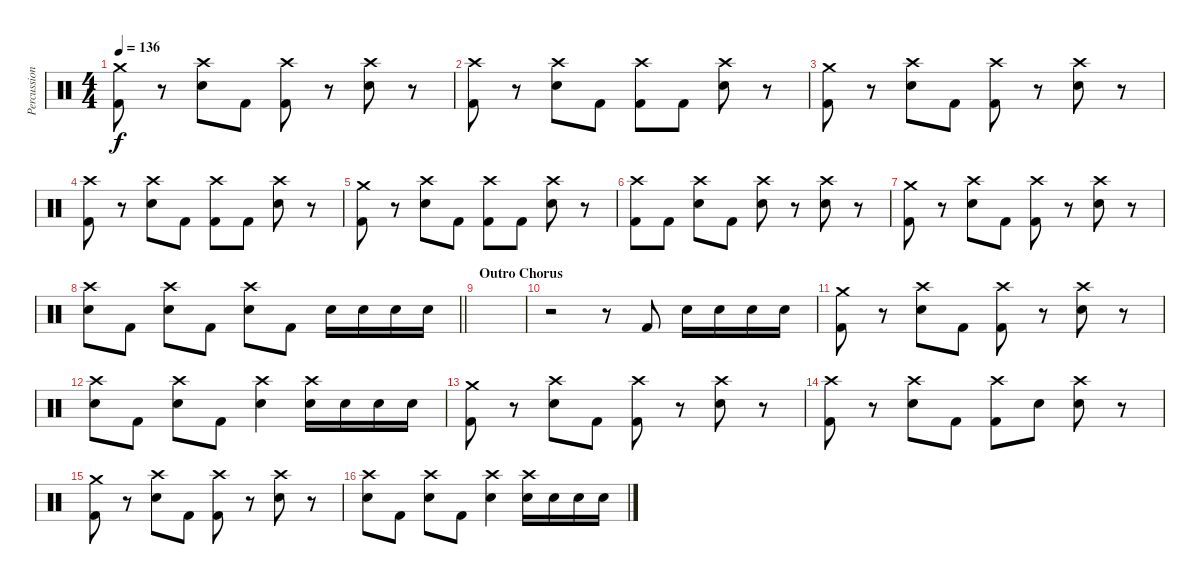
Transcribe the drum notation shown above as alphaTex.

\track ("Percussion" "Percussion") {instrument percussion}
\staff {score}
\articulation defaults
\ts (4 4)
\tempo 136
\clef neutral
\ks c
("Crash medium (hit)" "Kick (hit) 2").8{dy f} r.8 ("Crash high (hit)" "Snare (hit) 2").8 "Kick (hit) 2".8 ("Crash high (hit)" "Kick (hit) 2").8 r.8 ("Crash high (hit)" "Snare (hit) 2").8 r.8 |
("Crash high (hit)" "Kick (hit) 2").8 r.8 ("Crash high (hit)" "Snare (hit) 2").8 "Kick (hit) 2".8 ("Crash high (hit)" "Kick (hit) 2").8 "Kick (hit) 2".8 ("Crash high (hit)" "Snare (hit) 2").8 r.8 |
("Crash medium (hit)" "Kick (hit) 2").8 r.8 ("Crash high (hit)" "Snare (hit) 2").8 "Kick (hit) 2".8 ("Crash high (hit)" "Kick (hit) 2").8 r.8 ("Crash high (hit)" "Snare (hit) 2").8 r.8 |
("Crash high (hit)" "Kick (hit) 2").8 r.8 ("Crash high (hit)" "Snare (hit) 2").8 "Kick (hit) 2".8 ("Crash high (hit)" "Kick (hit) 2").8 "Kick (hit) 2".8 ("Crash high (hit)" "Snare (hit) 2").8 r.8 |
("Crash medium (hit)" "Kick (hit) 2").8 r.8 ("Crash high (hit)" "Snare (hit) 2").8 "Kick (hit) 2".8 ("Crash high (hit)" "Kick (hit) 2").8 "Kick (hit) 2".8 ("Crash high (hit)" "Snare (hit) 2").8 r.8 |
("Crash high (hit)" "Kick (hit) 2").8 "Kick (hit) 2".8 ("Crash high (hit)" "Snare (hit) 2").8 "Kick (hit) 2".8 ("Crash high (hit)" "Snare (hit) 2").8 r.8 ("Crash high (hit)" "Snare (hit) 2").8 r.8 |
("Crash medium (hit)" "Kick (hit) 2").8 r.8 ("Crash high (hit)" "Snare (hit) 2").8 "Kick (hit) 2".8 ("Crash high (hit)" "Kick (hit) 2").8 r.8 ("Crash high (hit)" "Snare (hit) 2").8 r.8 |
\barLineRight lightlight
("Crash high (hit)" "Snare (hit) 2").8 "Kick (hit) 2".8 ("Crash high (hit)" "Snare (hit) 2").8 "Kick (hit) 2".8 ("Crash high (hit)" "Snare (hit) 2").8 "Kick (hit) 2".8 "Snare (hit) 2".16 "Snare (hit) 2".16 "Snare (hit) 2".16 "Snare (hit) 2".16 |
\section ("" "Outro Chorus")
|
r.2 r.8 "Kick (hit) 2".8 "Snare (hit) 2".16 "Snare (hit) 2".16 "Snare (hit) 2".16 "Snare (hit) 2".16 |
("Crash medium (hit)" "Kick (hit) 2").8 r.8 ("Crash high (hit)" "Snare (hit) 2").8 "Kick (hit) 2".8 ("Crash high (hit)" "Kick (hit) 2").8 r.8 ("Crash high (hit)" "Snare (hit) 2").8 r.8 |
("Crash high (hit)" "Snare (hit) 2").8 "Kick (hit) 2".8 ("Crash high (hit)" "Snare (hit) 2").8 "Kick (hit) 2".8 ("Crash high (hit)" "Snare (hit) 2").4 ("Crash high (hit)" "Snare (hit) 2").16 "Snare (hit) 2".16 "Snare (hit) 2".16 "Snare (hit) 2".16 |
("Crash medium (hit)" "Kick (hit) 2").8 r.8 ("Crash high (hit)" "Snare (hit) 2").8 "Kick (hit) 2".8 ("Crash high (hit)" "Kick (hit) 2").8 r.8 ("Crash high (hit)" "Snare (hit) 2").8 r.8 |
("Crash high (hit)" "Kick (hit) 2").8 r.8 ("Crash high (hit)" "Snare (hit) 2").8 "Kick (hit) 2".8 ("Crash high (hit)" "Kick (hit) 2").8 "Snare (hit) 2".8 ("Crash high (hit)" "Snare (hit) 2").8 r.8 |
("Crash medium (hit)" "Kick (hit) 2").8 r.8 ("Crash high (hit)" "Snare (hit) 2").8 "Kick (hit) 2".8 ("Crash high (hit)" "Kick (hit) 2").8 r.8 ("Crash high (hit)" "Snare (hit) 2").8 r.8 |
("Crash high (hit)" "Snare (hit) 2").8 "Kick (hit) 2".8 ("Crash high (hit)" "Snare (hit) 2").8 "Kick (hit) 2".8 ("Crash high (hit)" "Snare (hit) 2").4 ("Crash high (hit)" "Snare (hit) 2").16 "Snare (hit) 2".16 "Snare (hit) 2".16 "Snare (hit) 2".16
